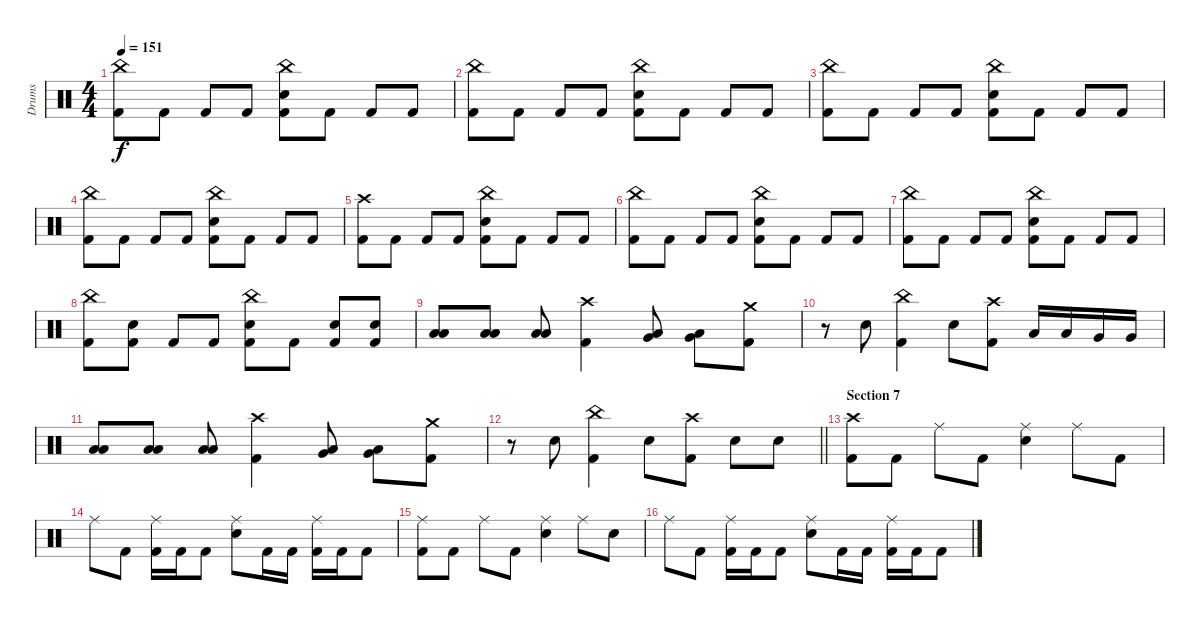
\track ("Drums" "Drums") {instrument percussion}
\staff {score}
\articulation defaults
\ts (4 4)
\tempo 151
\clef neutral
\ks c
("China (hit)" "Kick (hit) 2").8{dy f} "Kick (hit) 2".8 "Kick (hit) 2".8 "Kick (hit) 2".8 ("China (hit)" "Snare (hit) 2" "Kick (hit) 2").8 "Kick (hit) 2".8 "Kick (hit) 2".8 "Kick (hit) 2".8 |
("China (hit)" "Kick (hit) 2").8 "Kick (hit) 2".8 "Kick (hit) 2".8 "Kick (hit) 2".8 ("China (hit)" "Snare (hit) 2" "Kick (hit) 2").8 "Kick (hit) 2".8 "Kick (hit) 2".8 "Kick (hit) 2".8 |
("China (hit)" "Kick (hit) 2").8 "Kick (hit) 2".8 "Kick (hit) 2".8 "Kick (hit) 2".8 ("China (hit)" "Snare (hit) 2" "Kick (hit) 2").8 "Kick (hit) 2".8 "Kick (hit) 2".8 "Kick (hit) 2".8 |
("China (hit)" "Kick (hit) 2").8 "Kick (hit) 2".8 "Kick (hit) 2".8 "Kick (hit) 2".8 ("China (hit)" "Snare (hit) 2" "Kick (hit) 2").8 "Kick (hit) 2".8 "Kick (hit) 2".8 "Kick (hit) 2".8 |
("Crash high (hit)" "Kick (hit) 2").8 "Kick (hit) 2".8 "Kick (hit) 2".8 "Kick (hit) 2".8 ("China (hit)" "Snare (hit) 2" "Kick (hit) 2").8 "Kick (hit) 2".8 "Kick (hit) 2".8 "Kick (hit) 2".8 |
("China (hit)" "Kick (hit) 2").8 "Kick (hit) 2".8 "Kick (hit) 2".8 "Kick (hit) 2".8 ("China (hit)" "Snare (hit) 2" "Kick (hit) 2").8 "Kick (hit) 2".8 "Kick (hit) 2".8 "Kick (hit) 2".8 |
("China (hit)" "Kick (hit) 2").8 "Kick (hit) 2".8 "Kick (hit) 2".8 "Kick (hit) 2".8 ("China (hit)" "Snare (hit) 2" "Kick (hit) 2").8 "Kick (hit) 2".8 "Kick (hit) 2".8 "Kick (hit) 2".8 |
("China (hit)" "Kick (hit) 2").8 ("Snare (hit) 2" "Kick (hit) 2").8 "Kick (hit) 2".8 "Kick (hit) 2".8 ("China (hit)" "Snare (hit) 2" "Kick (hit) 2").8 "Kick (hit) 2".8 ("Snare (hit) 2" "Kick (hit) 2").8 ("Snare (hit) 2" "Kick (hit) 2").8 |
("Low Tom (hit)" "Low Floor Tom (hit)").8 ("Low Tom (hit)" "Low Floor Tom (hit)").8 ("Low Tom (hit)" "Low Floor Tom (hit)").8 ("Crash high (hit)" "Kick (hit) 2").4 ("Very Low Tom (hit)" "Low Floor Tom (hit)").8 ("Very Low Tom (hit)" "Low Floor Tom (hit)").8 ("Crash medium (hit)" "Kick (hit) 2").8 |
r.8 "Snare (hit) 2".8 ("China (hit)" "Kick (hit) 2").4 "Snare (hit) 2".8 ("Crash high (hit)" "Kick (hit) 2").8 "Low Tom (hit)".16 "Low Tom (hit)".16 "Very Low Tom (hit)".16 "Very Low Tom (hit)".16 |
("Low Tom (hit)" "Low Floor Tom (hit)").8 ("Low Tom (hit)" "Low Floor Tom (hit)").8 ("Low Tom (hit)" "Low Floor Tom (hit)").8 ("Crash high (hit)" "Kick (hit) 2").4 ("Very Low Tom (hit)" "Low Floor Tom (hit)").8 ("Very Low Tom (hit)" "Low Floor Tom (hit)").8 ("Crash medium (hit)" "Kick (hit) 2").8 |
\barLineRight lightlight
r.8 "Snare (hit) 2".8 ("China (hit)" "Kick (hit) 2").4 "Snare (hit) 2".8 ("Crash high (hit)" "Kick (hit) 2").8 "Snare (hit) 2".8 "Snare (hit) 2".8 |
\section ("" "Section 7")
("Crash high (hit)" "Kick (hit) 2").8 "Kick (hit) 2".8 "Ride (middle)".8 "Kick (hit) 2".8 ("Ride (middle)" "Snare (hit) 2").4 "Ride (middle)".8 "Kick (hit) 2".8 |
"Ride (middle)".8 "Kick (hit) 2".8 ("Ride (middle)" "Kick (hit) 2").16 "Kick (hit) 2".16 "Kick (hit) 2".8 ("Ride (middle)" "Snare (hit) 2").8 "Kick (hit) 2".16 "Kick (hit) 2".16 ("Ride (middle)" "Kick (hit) 2").16 "Kick (hit) 2".16 "Kick (hit) 2".8 |
("Ride (middle)" "Kick (hit) 2").8 "Kick (hit) 2".8 "Ride (middle)".8 "Kick (hit) 2".8 ("Ride (middle)" "Snare (hit) 2").4 "Ride (middle)".8 "Snare (hit) 2".8 |
"Ride (middle)".8 "Kick (hit) 2".8 ("Ride (middle)" "Kick (hit) 2").16 "Kick (hit) 2".16 "Kick (hit) 2".8 ("Ride (middle)" "Snare (hit) 2").8 "Kick (hit) 2".16 "Kick (hit) 2".16 ("Ride (middle)" "Kick (hit) 2").16 "Kick (hit) 2".16 "Kick (hit) 2".8
